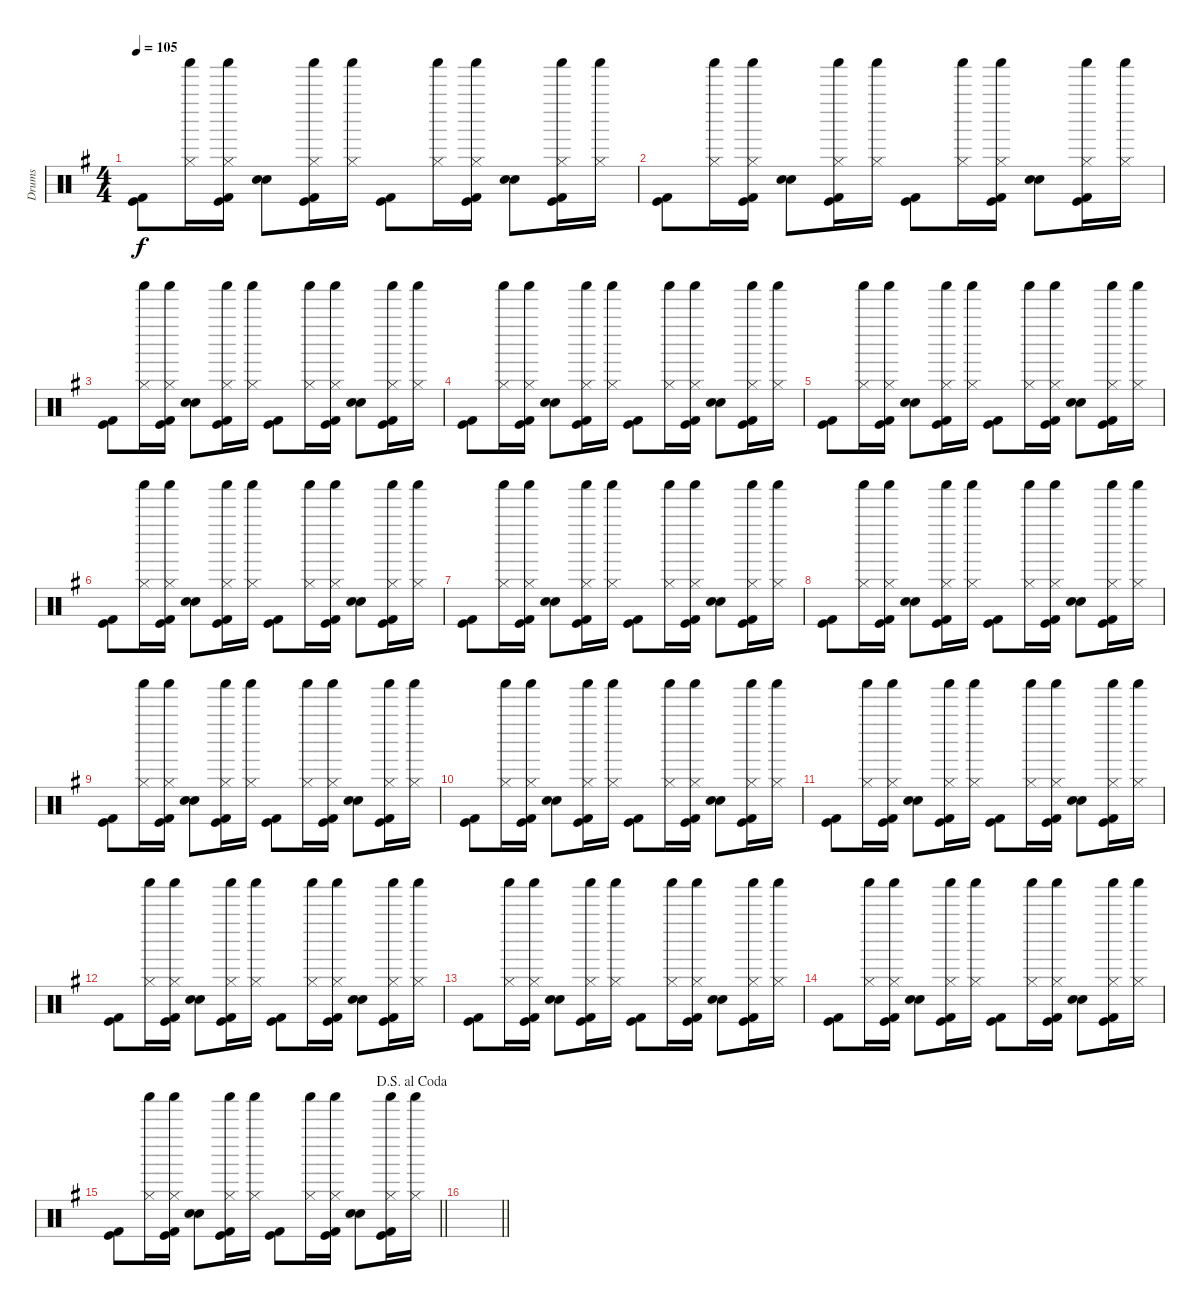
\track ("Drums" "Drums") {instrument percussion}
\staff {score}
\articulation defaults
\ts (4 4)
\tempo 105
\clef neutral
\ks g
("Kick (hit)" "Kick (hit) 2").8{dy f} ("Shaker (hit)" "Hi-Hat (closed)").16 ("Shaker (hit)" "Hi-Hat (closed)" "Kick (hit)" "Kick (hit) 2").16 ("Electric Snare (hit)" "Snare (hit) 2").8 ("Shaker (hit)" "Hi-Hat (closed)" "Kick (hit)" "Kick (hit) 2").16 ("Shaker (hit)" "Hi-Hat (closed)").16 ("Kick (hit)" "Kick (hit) 2").8 ("Shaker (hit)" "Hi-Hat (closed)").16 ("Shaker (hit)" "Hi-Hat (closed)" "Kick (hit)" "Kick (hit) 2").16 ("Electric Snare (hit)" "Snare (hit) 2").8 ("Shaker (hit)" "Hi-Hat (closed)" "Kick (hit)" "Kick (hit) 2").16 ("Shaker (hit)" "Hi-Hat (closed)").16 |
("Kick (hit)" "Kick (hit) 2").8 ("Shaker (hit)" "Hi-Hat (closed)").16 ("Shaker (hit)" "Hi-Hat (closed)" "Kick (hit)" "Kick (hit) 2").16 ("Electric Snare (hit)" "Snare (hit) 2").8 ("Shaker (hit)" "Hi-Hat (closed)" "Kick (hit)" "Kick (hit) 2").16 ("Shaker (hit)" "Hi-Hat (closed)").16 ("Kick (hit)" "Kick (hit) 2").8 ("Shaker (hit)" "Hi-Hat (closed)").16 ("Shaker (hit)" "Hi-Hat (closed)" "Kick (hit)" "Kick (hit) 2").16 ("Electric Snare (hit)" "Snare (hit) 2").8 ("Shaker (hit)" "Hi-Hat (closed)" "Kick (hit)" "Kick (hit) 2").16 ("Shaker (hit)" "Hi-Hat (closed)").16 |
("Kick (hit)" "Kick (hit) 2").8 ("Shaker (hit)" "Hi-Hat (closed)").16 ("Shaker (hit)" "Hi-Hat (closed)" "Kick (hit)" "Kick (hit) 2").16 ("Electric Snare (hit)" "Snare (hit) 2").8 ("Shaker (hit)" "Hi-Hat (closed)" "Kick (hit)" "Kick (hit) 2").16 ("Shaker (hit)" "Hi-Hat (closed)").16 ("Kick (hit)" "Kick (hit) 2").8 ("Shaker (hit)" "Hi-Hat (closed)").16 ("Shaker (hit)" "Hi-Hat (closed)" "Kick (hit)" "Kick (hit) 2").16 ("Electric Snare (hit)" "Snare (hit) 2").8 ("Shaker (hit)" "Hi-Hat (closed)" "Kick (hit)" "Kick (hit) 2").16 ("Shaker (hit)" "Hi-Hat (closed)").16 |
("Kick (hit)" "Kick (hit) 2").8 ("Shaker (hit)" "Hi-Hat (closed)").16 ("Shaker (hit)" "Hi-Hat (closed)" "Kick (hit)" "Kick (hit) 2").16 ("Electric Snare (hit)" "Snare (hit) 2").8 ("Shaker (hit)" "Hi-Hat (closed)" "Kick (hit)" "Kick (hit) 2").16 ("Shaker (hit)" "Hi-Hat (closed)").16 ("Kick (hit)" "Kick (hit) 2").8 ("Shaker (hit)" "Hi-Hat (closed)").16 ("Shaker (hit)" "Hi-Hat (closed)" "Kick (hit)" "Kick (hit) 2").16 ("Electric Snare (hit)" "Snare (hit) 2").8 ("Shaker (hit)" "Hi-Hat (closed)" "Kick (hit)" "Kick (hit) 2").16 ("Shaker (hit)" "Hi-Hat (closed)").16 |
("Kick (hit)" "Kick (hit) 2").8 ("Shaker (hit)" "Hi-Hat (closed)").16 ("Shaker (hit)" "Hi-Hat (closed)" "Kick (hit)" "Kick (hit) 2").16 ("Electric Snare (hit)" "Snare (hit) 2").8 ("Shaker (hit)" "Hi-Hat (closed)" "Kick (hit)" "Kick (hit) 2").16 ("Shaker (hit)" "Hi-Hat (closed)").16 ("Kick (hit)" "Kick (hit) 2").8 ("Shaker (hit)" "Hi-Hat (closed)").16 ("Shaker (hit)" "Hi-Hat (closed)" "Kick (hit)" "Kick (hit) 2").16 ("Electric Snare (hit)" "Snare (hit) 2").8 ("Shaker (hit)" "Hi-Hat (closed)" "Kick (hit)" "Kick (hit) 2").16 ("Shaker (hit)" "Hi-Hat (closed)").16 |
("Kick (hit)" "Kick (hit) 2").8 ("Shaker (hit)" "Hi-Hat (closed)").16 ("Shaker (hit)" "Hi-Hat (closed)" "Kick (hit)" "Kick (hit) 2").16 ("Electric Snare (hit)" "Snare (hit) 2").8 ("Shaker (hit)" "Hi-Hat (closed)" "Kick (hit)" "Kick (hit) 2").16 ("Shaker (hit)" "Hi-Hat (closed)").16 ("Kick (hit)" "Kick (hit) 2").8 ("Shaker (hit)" "Hi-Hat (closed)").16 ("Shaker (hit)" "Hi-Hat (closed)" "Kick (hit)" "Kick (hit) 2").16 ("Electric Snare (hit)" "Snare (hit) 2").8 ("Shaker (hit)" "Hi-Hat (closed)" "Kick (hit)" "Kick (hit) 2").16 ("Shaker (hit)" "Hi-Hat (closed)").16 |
("Kick (hit)" "Kick (hit) 2").8 ("Shaker (hit)" "Hi-Hat (closed)").16 ("Shaker (hit)" "Hi-Hat (closed)" "Kick (hit)" "Kick (hit) 2").16 ("Electric Snare (hit)" "Snare (hit) 2").8 ("Shaker (hit)" "Hi-Hat (closed)" "Kick (hit)" "Kick (hit) 2").16 ("Shaker (hit)" "Hi-Hat (closed)").16 ("Kick (hit)" "Kick (hit) 2").8 ("Shaker (hit)" "Hi-Hat (closed)").16 ("Shaker (hit)" "Hi-Hat (closed)" "Kick (hit)" "Kick (hit) 2").16 ("Electric Snare (hit)" "Snare (hit) 2").8 ("Shaker (hit)" "Hi-Hat (closed)" "Kick (hit)" "Kick (hit) 2").16 ("Shaker (hit)" "Hi-Hat (closed)").16 |
("Kick (hit)" "Kick (hit) 2").8 ("Shaker (hit)" "Hi-Hat (closed)").16 ("Shaker (hit)" "Hi-Hat (closed)" "Kick (hit)" "Kick (hit) 2").16 ("Electric Snare (hit)" "Snare (hit) 2").8 ("Shaker (hit)" "Hi-Hat (closed)" "Kick (hit)" "Kick (hit) 2").16 ("Shaker (hit)" "Hi-Hat (closed)").16 ("Kick (hit)" "Kick (hit) 2").8 ("Shaker (hit)" "Hi-Hat (closed)").16 ("Shaker (hit)" "Hi-Hat (closed)" "Kick (hit)" "Kick (hit) 2").16 ("Electric Snare (hit)" "Snare (hit) 2").8 ("Shaker (hit)" "Hi-Hat (closed)" "Kick (hit)" "Kick (hit) 2").16 ("Shaker (hit)" "Hi-Hat (closed)").16 |
("Kick (hit)" "Kick (hit) 2").8 ("Shaker (hit)" "Hi-Hat (closed)").16 ("Shaker (hit)" "Hi-Hat (closed)" "Kick (hit)" "Kick (hit) 2").16 ("Electric Snare (hit)" "Snare (hit) 2").8 ("Shaker (hit)" "Hi-Hat (closed)" "Kick (hit)" "Kick (hit) 2").16 ("Shaker (hit)" "Hi-Hat (closed)").16 ("Kick (hit)" "Kick (hit) 2").8 ("Shaker (hit)" "Hi-Hat (closed)").16 ("Shaker (hit)" "Hi-Hat (closed)" "Kick (hit)" "Kick (hit) 2").16 ("Electric Snare (hit)" "Snare (hit) 2").8 ("Shaker (hit)" "Hi-Hat (closed)" "Kick (hit)" "Kick (hit) 2").16 ("Shaker (hit)" "Hi-Hat (closed)").16 |
("Kick (hit)" "Kick (hit) 2").8 ("Shaker (hit)" "Hi-Hat (closed)").16 ("Shaker (hit)" "Hi-Hat (closed)" "Kick (hit)" "Kick (hit) 2").16 ("Electric Snare (hit)" "Snare (hit) 2").8 ("Shaker (hit)" "Hi-Hat (closed)" "Kick (hit)" "Kick (hit) 2").16 ("Shaker (hit)" "Hi-Hat (closed)").16 ("Kick (hit)" "Kick (hit) 2").8 ("Shaker (hit)" "Hi-Hat (closed)").16 ("Shaker (hit)" "Hi-Hat (closed)" "Kick (hit)" "Kick (hit) 2").16 ("Electric Snare (hit)" "Snare (hit) 2").8 ("Shaker (hit)" "Hi-Hat (closed)" "Kick (hit)" "Kick (hit) 2").16 ("Shaker (hit)" "Hi-Hat (closed)").16 |
("Kick (hit)" "Kick (hit) 2").8 ("Shaker (hit)" "Hi-Hat (closed)").16 ("Shaker (hit)" "Hi-Hat (closed)" "Kick (hit)" "Kick (hit) 2").16 ("Electric Snare (hit)" "Snare (hit) 2").8 ("Shaker (hit)" "Hi-Hat (closed)" "Kick (hit)" "Kick (hit) 2").16 ("Shaker (hit)" "Hi-Hat (closed)").16 ("Kick (hit)" "Kick (hit) 2").8 ("Shaker (hit)" "Hi-Hat (closed)").16 ("Shaker (hit)" "Hi-Hat (closed)" "Kick (hit)" "Kick (hit) 2").16 ("Electric Snare (hit)" "Snare (hit) 2").8 ("Shaker (hit)" "Hi-Hat (closed)" "Kick (hit)" "Kick (hit) 2").16 ("Shaker (hit)" "Hi-Hat (closed)").16 |
("Kick (hit)" "Kick (hit) 2").8 ("Shaker (hit)" "Hi-Hat (closed)").16 ("Shaker (hit)" "Hi-Hat (closed)" "Kick (hit)" "Kick (hit) 2").16 ("Electric Snare (hit)" "Snare (hit) 2").8 ("Shaker (hit)" "Hi-Hat (closed)" "Kick (hit)" "Kick (hit) 2").16 ("Shaker (hit)" "Hi-Hat (closed)").16 ("Kick (hit)" "Kick (hit) 2").8 ("Shaker (hit)" "Hi-Hat (closed)").16 ("Shaker (hit)" "Hi-Hat (closed)" "Kick (hit)" "Kick (hit) 2").16 ("Electric Snare (hit)" "Snare (hit) 2").8 ("Shaker (hit)" "Hi-Hat (closed)" "Kick (hit)" "Kick (hit) 2").16 ("Shaker (hit)" "Hi-Hat (closed)").16 |
("Kick (hit)" "Kick (hit) 2").8 ("Shaker (hit)" "Hi-Hat (closed)").16 ("Shaker (hit)" "Hi-Hat (closed)" "Kick (hit)" "Kick (hit) 2").16 ("Electric Snare (hit)" "Snare (hit) 2").8 ("Shaker (hit)" "Hi-Hat (closed)" "Kick (hit)" "Kick (hit) 2").16 ("Shaker (hit)" "Hi-Hat (closed)").16 ("Kick (hit)" "Kick (hit) 2").8 ("Shaker (hit)" "Hi-Hat (closed)").16 ("Shaker (hit)" "Hi-Hat (closed)" "Kick (hit)" "Kick (hit) 2").16 ("Electric Snare (hit)" "Snare (hit) 2").8 ("Shaker (hit)" "Hi-Hat (closed)" "Kick (hit)" "Kick (hit) 2").16 ("Shaker (hit)" "Hi-Hat (closed)").16 |
("Kick (hit)" "Kick (hit) 2").8 ("Shaker (hit)" "Hi-Hat (closed)").16 ("Shaker (hit)" "Hi-Hat (closed)" "Kick (hit)" "Kick (hit) 2").16 ("Electric Snare (hit)" "Snare (hit) 2").8 ("Shaker (hit)" "Hi-Hat (closed)" "Kick (hit)" "Kick (hit) 2").16 ("Shaker (hit)" "Hi-Hat (closed)").16 ("Kick (hit)" "Kick (hit) 2").8 ("Shaker (hit)" "Hi-Hat (closed)").16 ("Shaker (hit)" "Hi-Hat (closed)" "Kick (hit)" "Kick (hit) 2").16 ("Electric Snare (hit)" "Snare (hit) 2").8 ("Shaker (hit)" "Hi-Hat (closed)" "Kick (hit)" "Kick (hit) 2").16 ("Shaker (hit)" "Hi-Hat (closed)").16 |
\jump dalsegnoalcoda
\barLineRight lightlight
("Kick (hit)" "Kick (hit) 2").8 ("Shaker (hit)" "Hi-Hat (closed)").16 ("Shaker (hit)" "Hi-Hat (closed)" "Kick (hit)" "Kick (hit) 2").16 ("Electric Snare (hit)" "Snare (hit) 2").8 ("Shaker (hit)" "Hi-Hat (closed)" "Kick (hit)" "Kick (hit) 2").16 ("Shaker (hit)" "Hi-Hat (closed)").16 ("Kick (hit)" "Kick (hit) 2").8 ("Shaker (hit)" "Hi-Hat (closed)").16 ("Shaker (hit)" "Hi-Hat (closed)" "Kick (hit)" "Kick (hit) 2").16 ("Electric Snare (hit)" "Snare (hit) 2").8 ("Shaker (hit)" "Hi-Hat (closed)" "Kick (hit)" "Kick (hit) 2").16 ("Shaker (hit)" "Hi-Hat (closed)").16 |
\barLineRight lightlight
